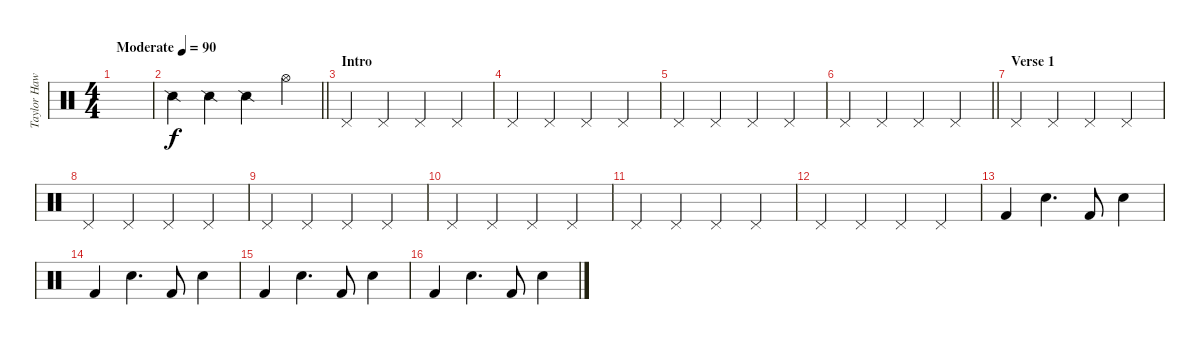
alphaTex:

\track ("Taylor Hawkins " "Taylor Haw") {instrument percussion}
\staff {score}
\articulation defaults
\ts (4 4)
\tempo (90 "Moderate")
\clef neutral
\ks c
|
\barLineRight lightlight "Snare (side stick) 2".4 "Snare (side stick) 2".4 "Snare (side stick) 2".4 "Hi-Hat (open)".4
|
\section ("" "Intro")
"Pedal Hi-Hat (hit)".4 "Pedal Hi-Hat (hit)".4 "Pedal Hi-Hat (hit)".4 "Pedal Hi-Hat (hit)".4 |
"Pedal Hi-Hat (hit)".4 "Pedal Hi-Hat (hit)".4 "Pedal Hi-Hat (hit)".4 "Pedal Hi-Hat (hit)".4 |
"Pedal Hi-Hat (hit)".4 "Pedal Hi-Hat (hit)".4 "Pedal Hi-Hat (hit)".4 "Pedal Hi-Hat (hit)".4 |
\barLineRight lightlight "Pedal Hi-Hat (hit)".4 "Pedal Hi-Hat (hit)".4 "Pedal Hi-Hat (hit)".4 "Pedal Hi-Hat (hit)".4
|
\section ("" "Verse 1")
"Pedal Hi-Hat (hit)".4 "Pedal Hi-Hat (hit)".4 "Pedal Hi-Hat (hit)".4 "Pedal Hi-Hat (hit)".4 |
"Pedal Hi-Hat (hit)".4 "Pedal Hi-Hat (hit)".4 "Pedal Hi-Hat (hit)".4 "Pedal Hi-Hat (hit)".4 |
"Pedal Hi-Hat (hit)".4 "Pedal Hi-Hat (hit)".4 "Pedal Hi-Hat (hit)".4 "Pedal Hi-Hat (hit)".4 |
"Pedal Hi-Hat (hit)".4 "Pedal Hi-Hat (hit)".4 "Pedal Hi-Hat (hit)".4 "Pedal Hi-Hat (hit)".4 |
"Pedal Hi-Hat (hit)".4 "Pedal Hi-Hat (hit)".4 "Pedal Hi-Hat (hit)".4 "Pedal Hi-Hat (hit)".4 |
"Pedal Hi-Hat (hit)".4 "Pedal Hi-Hat (hit)".4 "Pedal Hi-Hat (hit)".4 "Pedal Hi-Hat (hit)".4 |
"Kick (hit) 2".4 "Snare (hit) 2".4{d} "Kick (hit) 2".8 "Snare (hit) 2".4 |
"Kick (hit) 2".4 "Snare (hit) 2".4{d} "Kick (hit) 2".8 "Snare (hit) 2".4 |
"Kick (hit) 2".4 "Snare (hit) 2".4{d} "Kick (hit) 2".8 "Snare (hit) 2".4 |
"Kick (hit) 2".4 "Snare (hit) 2".4{d} "Kick (hit) 2".8 "Snare (hit) 2".4
